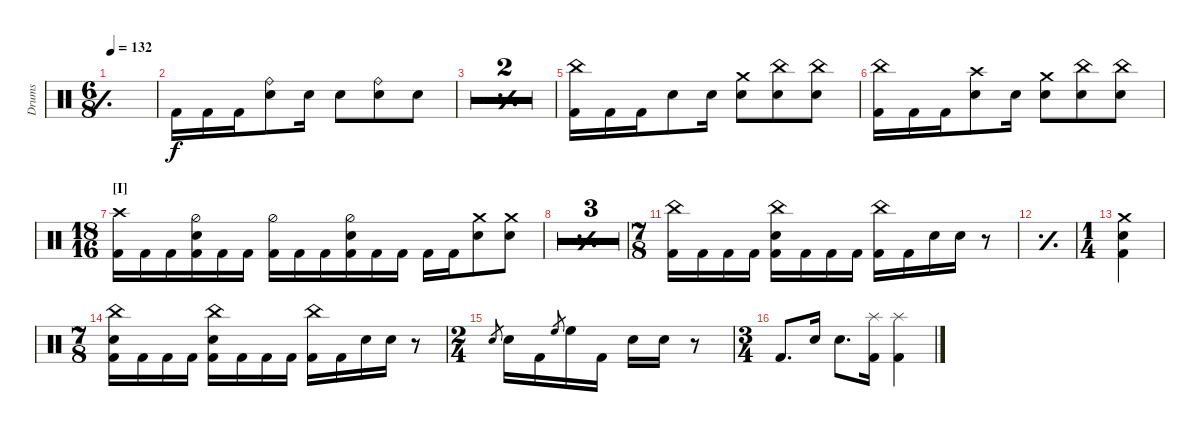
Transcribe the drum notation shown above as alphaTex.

\defaultSystemsLayout 4
\bracketExtendMode groupsimilarinstruments
\otherSystemsTrackNameOrientation horizontal
\track ("Drumkit" "Drums") {multiBarRest instrument percussion}
\staff {score}
\articulation defaults
\ts (6 8)
\tempo 132
\clef neutral
\simile simple
\ks c
|
\simile none "Kick (hit) 2".16 "Kick (hit) 2".16 "Kick (hit) 2".16
("Snare (hit) 2" "Ride (bell)").8 "Snare (hit) 2".16 "Snare (hit) 2".8 ("Snare (hit) 2" "Ride (bell)").8 "Snare (hit) 2".8 |
\simile simple
|
|
\simile none
("Kick (hit) 2" "China (hit)").16 "Kick (hit) 2".16 "Kick (hit) 2".16 "Snare (hit) 2".8 "Snare (hit) 2".16 ("Snare (hit) 2" "Crash medium (hit)").8 ("Snare (hit) 2" "China (hit)").8 ("Snare (hit) 2" "China (hit)").8 |
("Kick (hit) 2" "China (hit)").16 "Kick (hit) 2".16 "Kick (hit) 2".16 ("Snare (hit) 2" "Crash high (hit)").8 "Snare (hit) 2".16 ("Snare (hit) 2" "Crash medium (hit)").8 ("Snare (hit) 2" "China (hit)").8 ("Snare (hit) 2" "China (hit)").8 |
\ts (18 16)
\beaming (8 3 3 3)
\section ("I" "")
("Kick (hit) 2" "Crash high (hit)").16 "Kick (hit) 2".16 "Kick (hit) 2".16 ("Kick (hit) 2" "Snare (hit) 2" "Hi-Hat (half)").16 "Kick (hit) 2".16 "Kick (hit) 2".16 ("Kick (hit) 2" "Hi-Hat (half)").16 "Kick (hit) 2".16 "Kick (hit) 2".16 ("Kick (hit) 2" "Snare (hit) 2" "Hi-Hat (half)").16 "Kick (hit) 2".16 "Kick (hit) 2".16 "Kick (hit) 2".16 "Kick (hit) 2".16 ("Snare (hit) 2" "Crash medium (hit)").8 ("Snare (hit) 2" "Crash medium (hit)").8 |
\simile simple
|
|
|
\ts (7 8)
\beaming (8 2 2 2 1)
\simile none
("Kick (hit) 2" "China (hit)").16 "Kick (hit) 2".16 "Kick (hit) 2".16 "Kick (hit) 2".16 ("Kick (hit) 2" "China (hit)" "Snare (hit) 2").16 "Kick (hit) 2".16 "Kick (hit) 2".16 "Kick (hit) 2".16 ("Kick (hit) 2" "China (hit)").16 "Kick (hit) 2".16 "Snare (hit) 2".16 "Snare (hit) 2".16 r.8 |
\simile simple
|
\ts (1 4)
\beaming (8 2 2 2 1)
\simile none
("Snare (hit) 2" "Crash medium (hit)" "Kick (hit) 2").4 |
\ts (7 8)
\beaming (8 2 2 2 1)
("Kick (hit) 2" "China (hit)" "Snare (hit) 2").16 "Kick (hit) 2".16 "Kick (hit) 2".16 "Kick (hit) 2".16 ("Kick (hit) 2" "China (hit)" "Snare (hit) 2").16 "Kick (hit) 2".16 "Kick (hit) 2".16 "Kick (hit) 2".16 ("Kick (hit) 2" "China (hit)").16 "Kick (hit) 2".16 "Snare (hit) 2".16 "Snare (hit) 2".16 r.8 |
\ts (2 4)
\beaming (8 2 2 2 1)
"Snare (hit) 2".8{gr} "Snare (hit) 2".16 "Kick (hit) 2".16 "High Floor Tom (hit)".8{gr} "High Floor Tom (hit)".16 "Kick (hit) 2".16 "Snare (hit) 2".16 "Snare (hit) 2".16 r.8 |
\ts (3 4)
\beaming (8 2 2 2 1)
"Kick (hit) 2".8{d} "Snare (hit) 2".16 "Snare (hit) 2".8{d} ("Splash (hit)" "Kick (hit) 2").16 ("Splash (hit)" "Kick (hit) 2").4
